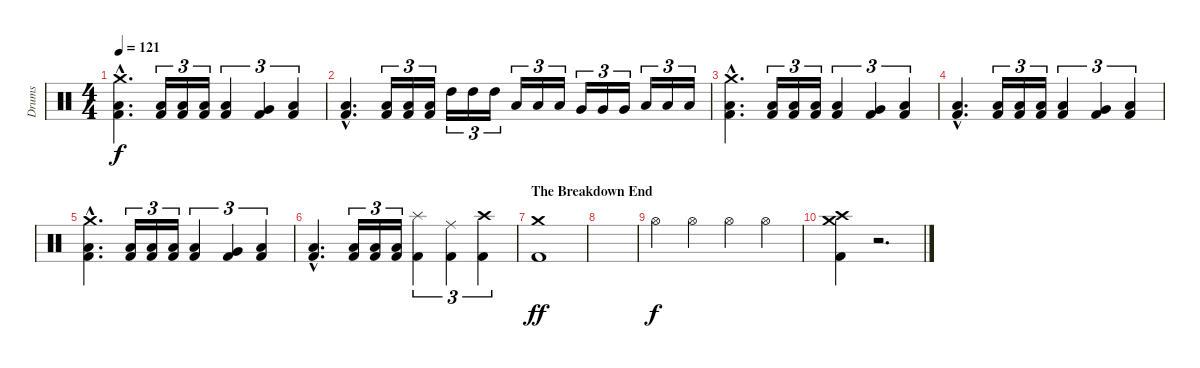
\track ("Drums" "Drums") {instrument percussion}
\staff {score}
\articulation defaults
\ts (4 4)
\tempo 121
\clef neutral
\ks c
("Crash medium (hit)"{hac} "Low Floor Tom (hit)"{hac} "Kick (hit) 2"{hac}).4{d dy f} ("Low Floor Tom (hit)" "Kick (hit) 2").16{tu (3 2)} ("Low Floor Tom (hit)" "Kick (hit) 2").16{tu (3 2)} ("Low Floor Tom (hit)" "Kick (hit) 2").16{tu (3 2)} ("Low Tom (hit)" "Kick (hit) 2").4{tu (3 2)} ("Very Low Tom (hit)" "Kick (hit) 2").4{tu (3 2)} ("Low Floor Tom (hit)" "Kick (hit) 2").4{tu (3 2)} |
("Low Floor Tom (hit)"{hac} "Kick (hit) 2"{hac}).4{d} ("Low Floor Tom (hit)" "Kick (hit) 2").16{tu (3 2)} ("Low Floor Tom (hit)" "Kick (hit) 2").16{tu (3 2)} ("Low Floor Tom (hit)" "Kick (hit) 2").16{tu (3 2)} "High Tom (hit)".16{tu (3 2)} "High Tom (hit)".16{tu (3 2)} "High Tom (hit)".16{tu (3 2)} "Low Tom (hit)".16{tu (3 2)} "Low Tom (hit)".16{tu (3 2)} "Low Tom (hit)".16{tu (3 2)} "Very Low Tom (hit)".16{tu (3 2)} "Very Low Tom (hit)".16{tu (3 2)} "Very Low Tom (hit)".16{tu (3 2)} "Low Floor Tom (hit)".16{tu (3 2)} "Low Floor Tom (hit)".16{tu (3 2)} "Low Floor Tom (hit)".16{tu (3 2)} |
("Crash medium (hit)"{hac} "Low Floor Tom (hit)"{hac} "Kick (hit) 2"{hac}).4{d} ("Low Floor Tom (hit)" "Kick (hit) 2").16{tu (3 2)} ("Low Floor Tom (hit)" "Kick (hit) 2").16{tu (3 2)} ("Low Floor Tom (hit)" "Kick (hit) 2").16{tu (3 2)} ("Low Tom (hit)" "Kick (hit) 2").4{tu (3 2)} ("Very Low Tom (hit)" "Kick (hit) 2").4{tu (3 2)} ("Low Floor Tom (hit)" "Kick (hit) 2").4{tu (3 2)} |
("Low Floor Tom (hit)"{hac} "Kick (hit) 2"{hac}).4{d} ("Low Floor Tom (hit)" "Kick (hit) 2").16{tu (3 2)} ("Low Floor Tom (hit)" "Kick (hit) 2").16{tu (3 2)} ("Low Floor Tom (hit)" "Kick (hit) 2").16{tu (3 2)} ("Low Tom (hit)" "Kick (hit) 2").4{tu (3 2)} ("Very Low Tom (hit)" "Kick (hit) 2").4{tu (3 2)} ("Low Floor Tom (hit)" "Kick (hit) 2").4{tu (3 2)} |
("Crash medium (hit)"{hac} "Low Floor Tom (hit)"{hac} "Kick (hit) 2"{hac}).4{d} ("Low Floor Tom (hit)" "Kick (hit) 2").16{tu (3 2)} ("Low Floor Tom (hit)" "Kick (hit) 2").16{tu (3 2)} ("Low Floor Tom (hit)" "Kick (hit) 2").16{tu (3 2)} ("Low Tom (hit)" "Kick (hit) 2").4{tu (3 2)} ("Very Low Tom (hit)" "Kick (hit) 2").4{tu (3 2)} ("Low Floor Tom (hit)" "Kick (hit) 2").4{tu (3 2)} |
("Low Floor Tom (hit)"{hac} "Kick (hit) 2"{hac}).4{d} ("Low Floor Tom (hit)" "Kick (hit) 2").16{tu (3 2)} ("Low Floor Tom (hit)" "Kick (hit) 2").16{tu (3 2)} ("Low Floor Tom (hit)" "Kick (hit) 2").16{tu (3 2)} ("Splash (hit)" "Kick (hit) 2").4{tu (3 2)} ("Ride (middle)" "Kick (hit) 2").4{tu (3 2)} ("Crash high (hit)" "Kick (hit) 2").4{tu (3 2)} |
\section ("" "The Breakdown End")
("Crash medium (hit)" "Kick (hit) 2").1{dy ff} |
|
"Hi-Hat (open)".4{dy f} "Hi-Hat (open)".4 "Hi-Hat (open)".4 "Hi-Hat (open)".4 |
("Crash high (hit)" "Crash medium (hit)" "Kick (hit) 2").4 r.2{d}
